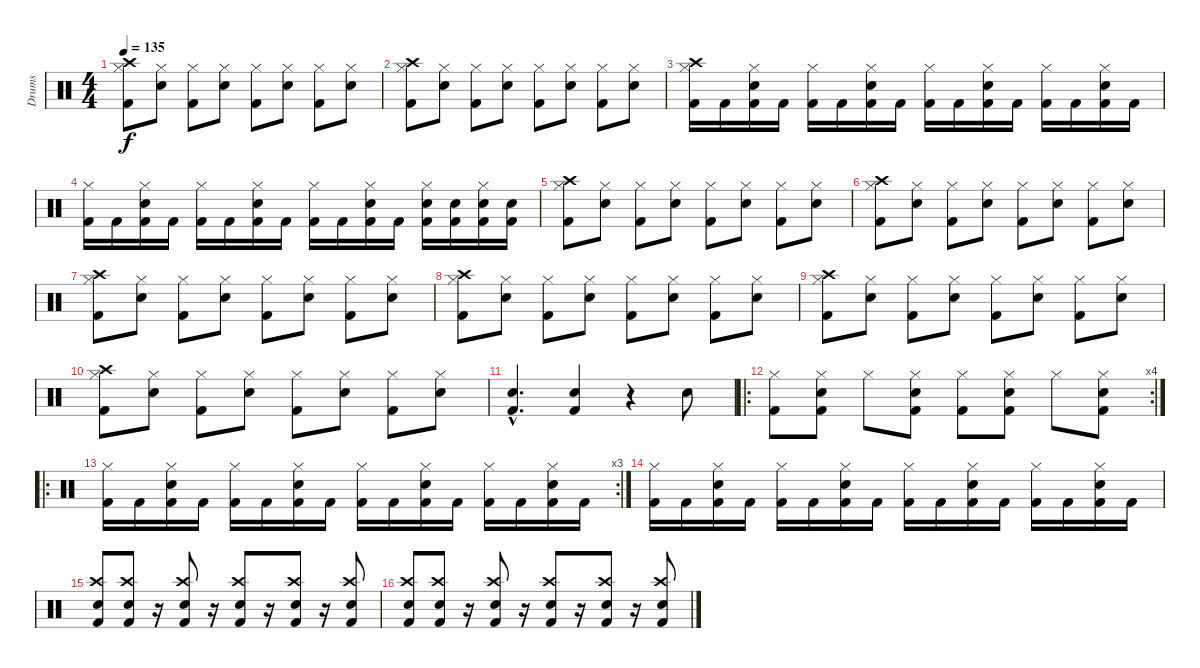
\track ("Drums" "Drums") {instrument percussion}
\staff {score}
\articulation defaults
\ts (4 4)
\tempo 135
\clef neutral
\ks c
("Hi-Hat (closed)" "Kick (hit) 2" "Crash high (hit)").8{dy f} ("Hi-Hat (closed)" "Electric Snare (hit)").8 ("Hi-Hat (closed)" "Kick (hit) 2").8 ("Hi-Hat (closed)" "Electric Snare (hit)").8 ("Hi-Hat (closed)" "Kick (hit) 2").8 ("Hi-Hat (closed)" "Electric Snare (hit)").8 ("Hi-Hat (closed)" "Kick (hit) 2").8 ("Hi-Hat (closed)" "Electric Snare (hit)").8 |
("Hi-Hat (closed)" "Kick (hit) 2" "Crash high (hit)").8 ("Hi-Hat (closed)" "Electric Snare (hit)").8 ("Hi-Hat (closed)" "Kick (hit) 2").8 ("Hi-Hat (closed)" "Electric Snare (hit)").8 ("Hi-Hat (closed)" "Kick (hit) 2").8 ("Hi-Hat (closed)" "Electric Snare (hit)").8 ("Hi-Hat (closed)" "Kick (hit) 2").8 ("Hi-Hat (closed)" "Electric Snare (hit)").8 |
("Kick (hit) 2" "Hi-Hat (closed)" "Crash high (hit)").16 "Kick (hit) 2".16 ("Kick (hit) 2" "Electric Snare (hit)" "Hi-Hat (closed)").16 "Kick (hit) 2".16 ("Kick (hit) 2" "Hi-Hat (closed)").16 "Kick (hit) 2".16 ("Kick (hit) 2" "Electric Snare (hit)" "Hi-Hat (closed)").16 "Kick (hit) 2".16 ("Kick (hit) 2" "Hi-Hat (closed)").16 "Kick (hit) 2".16 ("Kick (hit) 2" "Electric Snare (hit)" "Hi-Hat (closed)").16 "Kick (hit) 2".16 ("Kick (hit) 2" "Hi-Hat (closed)").16 "Kick (hit) 2".16 ("Kick (hit) 2" "Electric Snare (hit)" "Hi-Hat (closed)").16 "Kick (hit) 2".16 |
("Kick (hit) 2" "Hi-Hat (closed)").16 "Kick (hit) 2".16 ("Kick (hit) 2" "Electric Snare (hit)" "Hi-Hat (closed)").16 "Kick (hit) 2".16 ("Kick (hit) 2" "Hi-Hat (closed)").16 "Kick (hit) 2".16 ("Kick (hit) 2" "Electric Snare (hit)" "Hi-Hat (closed)").16 "Kick (hit) 2".16 ("Kick (hit) 2" "Hi-Hat (closed)").16 "Kick (hit) 2".16 ("Kick (hit) 2" "Electric Snare (hit)" "Hi-Hat (closed)").16 "Kick (hit) 2".16 ("Kick (hit) 2" "Electric Snare (hit)" "Hi-Hat (closed)").16 ("Kick (hit) 2" "Electric Snare (hit)").16 ("Kick (hit) 2" "Electric Snare (hit)" "Hi-Hat (closed)").16 ("Kick (hit) 2" "Electric Snare (hit)").16 |
("Hi-Hat (closed)" "Kick (hit) 2" "Crash high (hit)").8 ("Hi-Hat (closed)" "Electric Snare (hit)").8 ("Hi-Hat (closed)" "Kick (hit) 2").8 ("Hi-Hat (closed)" "Electric Snare (hit)").8 ("Hi-Hat (closed)" "Kick (hit) 2").8 ("Hi-Hat (closed)" "Electric Snare (hit)").8 ("Hi-Hat (closed)" "Kick (hit) 2").8 ("Hi-Hat (closed)" "Electric Snare (hit)").8 |
("Hi-Hat (closed)" "Kick (hit) 2" "Crash high (hit)").8 ("Hi-Hat (closed)" "Electric Snare (hit)").8 ("Hi-Hat (closed)" "Kick (hit) 2").8 ("Hi-Hat (closed)" "Electric Snare (hit)").8 ("Hi-Hat (closed)" "Kick (hit) 2").8 ("Hi-Hat (closed)" "Electric Snare (hit)").8 ("Hi-Hat (closed)" "Kick (hit) 2").8 ("Hi-Hat (closed)" "Electric Snare (hit)").8 |
("Hi-Hat (closed)" "Kick (hit) 2" "Crash high (hit)").8 ("Hi-Hat (closed)" "Electric Snare (hit)").8 ("Hi-Hat (closed)" "Kick (hit) 2").8 ("Hi-Hat (closed)" "Electric Snare (hit)").8 ("Hi-Hat (closed)" "Kick (hit) 2").8 ("Hi-Hat (closed)" "Electric Snare (hit)").8 ("Hi-Hat (closed)" "Kick (hit) 2").8 ("Hi-Hat (closed)" "Electric Snare (hit)").8 |
("Hi-Hat (closed)" "Kick (hit) 2" "Crash high (hit)").8 ("Hi-Hat (closed)" "Electric Snare (hit)").8 ("Hi-Hat (closed)" "Kick (hit) 2").8 ("Hi-Hat (closed)" "Electric Snare (hit)").8 ("Hi-Hat (closed)" "Kick (hit) 2").8 ("Hi-Hat (closed)" "Electric Snare (hit)").8 ("Hi-Hat (closed)" "Kick (hit) 2").8 ("Hi-Hat (closed)" "Electric Snare (hit)").8 |
("Hi-Hat (closed)" "Kick (hit) 2" "Crash high (hit)").8 ("Hi-Hat (closed)" "Electric Snare (hit)").8 ("Hi-Hat (closed)" "Kick (hit) 2").8 ("Hi-Hat (closed)" "Electric Snare (hit)").8 ("Hi-Hat (closed)" "Kick (hit) 2").8 ("Hi-Hat (closed)" "Electric Snare (hit)").8 ("Hi-Hat (closed)" "Kick (hit) 2").8 ("Hi-Hat (closed)" "Electric Snare (hit)").8 |
("Hi-Hat (closed)" "Kick (hit) 2" "Crash high (hit)").8 ("Hi-Hat (closed)" "Electric Snare (hit)").8 ("Hi-Hat (closed)" "Kick (hit) 2").8 ("Hi-Hat (closed)" "Electric Snare (hit)").8 ("Hi-Hat (closed)" "Kick (hit) 2").8 ("Hi-Hat (closed)" "Electric Snare (hit)").8 ("Hi-Hat (closed)" "Kick (hit) 2").8 ("Hi-Hat (closed)" "Electric Snare (hit)").8 |
("Kick (hit) 2"{hac} "Electric Snare (hit)"{hac}).4{d} ("Kick (hit) 2" "Electric Snare (hit)").4 r.4 "Electric Snare (hit)".8 |
\ro
\rc 4
("Hi-Hat (closed)" "Kick (hit) 2").8 ("Hi-Hat (closed)" "Electric Snare (hit)" "Kick (hit) 2").8 "Hi-Hat (closed)".8 ("Hi-Hat (closed)" "Electric Snare (hit)" "Kick (hit) 2").8 ("Hi-Hat (closed)" "Kick (hit) 2").8 ("Hi-Hat (closed)" "Electric Snare (hit)" "Kick (hit) 2").8 "Hi-Hat (closed)".8 ("Hi-Hat (closed)" "Electric Snare (hit)" "Kick (hit) 2").8 |
\ro
\rc 3
("Kick (hit) 2" "Hi-Hat (closed)").16 "Kick (hit) 2".16 ("Kick (hit) 2" "Electric Snare (hit)" "Hi-Hat (closed)").16 "Kick (hit) 2".16 ("Kick (hit) 2" "Hi-Hat (closed)").16 "Kick (hit) 2".16 ("Kick (hit) 2" "Electric Snare (hit)" "Hi-Hat (closed)").16 "Kick (hit) 2".16 ("Kick (hit) 2" "Hi-Hat (closed)").16 "Kick (hit) 2".16 ("Kick (hit) 2" "Electric Snare (hit)" "Hi-Hat (closed)").16 "Kick (hit) 2".16 ("Kick (hit) 2" "Hi-Hat (closed)").16 "Kick (hit) 2".16 ("Kick (hit) 2" "Electric Snare (hit)" "Hi-Hat (closed)").16 "Kick (hit) 2".16 |
("Kick (hit) 2" "Hi-Hat (closed)").16 "Kick (hit) 2".16 ("Kick (hit) 2" "Electric Snare (hit)" "Hi-Hat (closed)").16 "Kick (hit) 2".16 ("Kick (hit) 2" "Hi-Hat (closed)").16 "Kick (hit) 2".16 ("Kick (hit) 2" "Electric Snare (hit)" "Hi-Hat (closed)").16 "Kick (hit) 2".16 ("Kick (hit) 2" "Hi-Hat (closed)").16 "Kick (hit) 2".16 ("Kick (hit) 2" "Electric Snare (hit)" "Hi-Hat (closed)").16 "Kick (hit) 2".16 ("Kick (hit) 2" "Hi-Hat (closed)").16 "Kick (hit) 2".16 ("Kick (hit) 2" "Electric Snare (hit)" "Hi-Hat (closed)").16 "Kick (hit) 2".16 |
("Electric Snare (hit)" "Kick (hit) 2" "Crash high (hit)").8 ("Electric Snare (hit)" "Kick (hit) 2" "Crash high (hit)").8 r.16 ("Electric Snare (hit)" "Kick (hit) 2" "Crash high (hit)").8 r.16 ("Electric Snare (hit)" "Kick (hit) 2" "Crash high (hit)").8 r.16 ("Electric Snare (hit)" "Kick (hit) 2" "Crash high (hit)").8 r.16 ("Electric Snare (hit)" "Kick (hit) 2" "Crash high (hit)").8 |
("Electric Snare (hit)" "Kick (hit) 2" "Crash high (hit)").8 ("Electric Snare (hit)" "Kick (hit) 2" "Crash high (hit)").8 r.16 ("Electric Snare (hit)" "Kick (hit) 2" "Crash high (hit)").8 r.16 ("Electric Snare (hit)" "Kick (hit) 2" "Crash high (hit)").8 r.16 ("Electric Snare (hit)" "Kick (hit) 2" "Crash high (hit)").8 r.16 ("Electric Snare (hit)" "Kick (hit) 2" "Crash high (hit)").8
